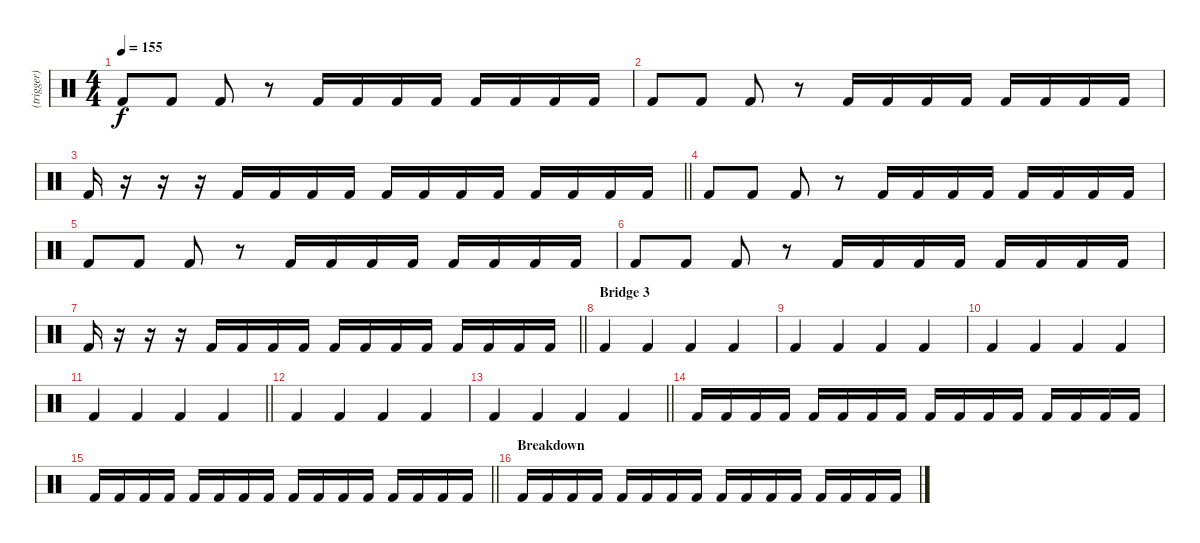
\track ("(trigger)" "(trigger)") {instrument percussion}
\staff {score}
\articulation defaults
\ts (4 4)
\tempo 155
\clef neutral
\ks c "Kick (hit) 2".8{dy f} "Kick (hit) 2".8 "Kick (hit) 2".8
r.8 "Kick (hit) 2".16 "Kick (hit) 2".16 "Kick (hit) 2".16 "Kick (hit) 2".16 "Kick (hit) 2".16 "Kick (hit) 2".16 "Kick (hit) 2".16 "Kick (hit) 2".16 |
"Kick (hit) 2".8 "Kick (hit) 2".8 "Kick (hit) 2".8 r.8 "Kick (hit) 2".16 "Kick (hit) 2".16 "Kick (hit) 2".16 "Kick (hit) 2".16 "Kick (hit) 2".16 "Kick (hit) 2".16 "Kick (hit) 2".16 "Kick (hit) 2".16 |
\barLineRight lightlight "Kick (hit) 2".16
r.16 r.16 r.16 "Kick (hit) 2".16 "Kick (hit) 2".16 "Kick (hit) 2".16 "Kick (hit) 2".16 "Kick (hit) 2".16 "Kick (hit) 2".16 "Kick (hit) 2".16 "Kick (hit) 2".16 "Kick (hit) 2".16 "Kick (hit) 2".16 "Kick (hit) 2".16 "Kick (hit) 2".16 |
"Kick (hit) 2".8 "Kick (hit) 2".8 "Kick (hit) 2".8 r.8 "Kick (hit) 2".16 "Kick (hit) 2".16 "Kick (hit) 2".16 "Kick (hit) 2".16 "Kick (hit) 2".16 "Kick (hit) 2".16 "Kick (hit) 2".16 "Kick (hit) 2".16 |
"Kick (hit) 2".8 "Kick (hit) 2".8 "Kick (hit) 2".8 r.8 "Kick (hit) 2".16 "Kick (hit) 2".16 "Kick (hit) 2".16 "Kick (hit) 2".16 "Kick (hit) 2".16 "Kick (hit) 2".16 "Kick (hit) 2".16 "Kick (hit) 2".16 |
"Kick (hit) 2".8 "Kick (hit) 2".8 "Kick (hit) 2".8 r.8 "Kick (hit) 2".16 "Kick (hit) 2".16 "Kick (hit) 2".16 "Kick (hit) 2".16 "Kick (hit) 2".16 "Kick (hit) 2".16 "Kick (hit) 2".16 "Kick (hit) 2".16 |
\barLineRight lightlight "Kick (hit) 2".16
r.16 r.16 r.16 "Kick (hit) 2".16 "Kick (hit) 2".16 "Kick (hit) 2".16 "Kick (hit) 2".16 "Kick (hit) 2".16 "Kick (hit) 2".16 "Kick (hit) 2".16 "Kick (hit) 2".16 "Kick (hit) 2".16 "Kick (hit) 2".16 "Kick (hit) 2".16 "Kick (hit) 2".16 |
\section ("" "Bridge 3")
"Kick (hit) 2".4 "Kick (hit) 2".4 "Kick (hit) 2".4 "Kick (hit) 2".4 |
"Kick (hit) 2".4 "Kick (hit) 2".4 "Kick (hit) 2".4 "Kick (hit) 2".4 |
"Kick (hit) 2".4 "Kick (hit) 2".4 "Kick (hit) 2".4 "Kick (hit) 2".4 |
\barLineRight lightlight "Kick (hit) 2".4 "Kick (hit) 2".4 "Kick (hit) 2".4 "Kick (hit) 2".4
|
"Kick (hit) 2".4 "Kick (hit) 2".4 "Kick (hit) 2".4 "Kick (hit) 2".4 |
\barLineRight lightlight "Kick (hit) 2".4 "Kick (hit) 2".4 "Kick (hit) 2".4 "Kick (hit) 2".4
|
"Kick (hit) 2".16 "Kick (hit) 2".16 "Kick (hit) 2".16 "Kick (hit) 2".16 "Kick (hit) 2".16 "Kick (hit) 2".16 "Kick (hit) 2".16 "Kick (hit) 2".16 "Kick (hit) 2".16 "Kick (hit) 2".16 "Kick (hit) 2".16 "Kick (hit) 2".16 "Kick (hit) 2".16 "Kick (hit) 2".16 "Kick (hit) 2".16 "Kick (hit) 2".16 |
\barLineRight lightlight "Kick (hit) 2".16 "Kick (hit) 2".16 "Kick (hit) 2".16 "Kick (hit) 2".16 "Kick (hit) 2".16 "Kick (hit) 2".16 "Kick (hit) 2".16 "Kick (hit) 2".16 "Kick (hit) 2".16 "Kick (hit) 2".16 "Kick (hit) 2".16 "Kick (hit) 2".16 "Kick (hit) 2".16 "Kick (hit) 2".16 "Kick (hit) 2".16 "Kick (hit) 2".16
|
\section ("" "Breakdown")
"Kick (hit) 2".16 "Kick (hit) 2".16 "Kick (hit) 2".16 "Kick (hit) 2".16 "Kick (hit) 2".16 "Kick (hit) 2".16 "Kick (hit) 2".16 "Kick (hit) 2".16 "Kick (hit) 2".16 "Kick (hit) 2".16 "Kick (hit) 2".16 "Kick (hit) 2".16 "Kick (hit) 2".16 "Kick (hit) 2".16 "Kick (hit) 2".16 "Kick (hit) 2".16
